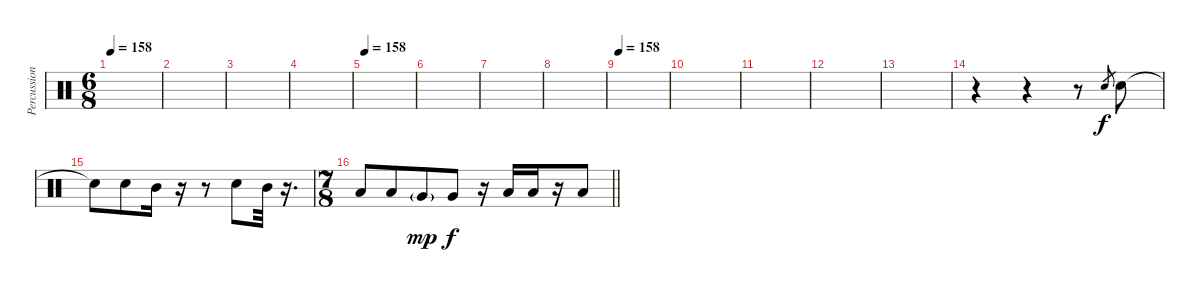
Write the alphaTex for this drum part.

\track ("Percussion" "Percussion") {instrument percussion}
\staff {score}
\articulation defaults
\ts (6 8)
\section ("" "")
\tempo 158
\clef neutral
\ks c
|
|
|
|
\tempo 158
|
|
|
|
\tempo 158
|
|
|
|
|
r.4 r.4 r.8 "Snare (hit) 2".8{gr} "Snare (hit) 2".8 |
"Snare (hit)"{t}.8 "Snare (hit) 2".8 "Mid Tom (hit)".16 r.16 r.8 "Snare (hit) 2".8 "Mid Tom (hit)".32 r.16{d} |
\ts (7 8)
\barLineRight lightlight "Low Tom (hit)".8 "Low Tom (hit)".8 "Very Low Tom (hit)"{g}.8{dy mp} "Very Low Tom (hit)".8{dy f}
r.16 "Low Floor Tom (hit)".16 "Low Floor Tom (hit)".16 r.16 "Low Floor Tom (hit)".8
